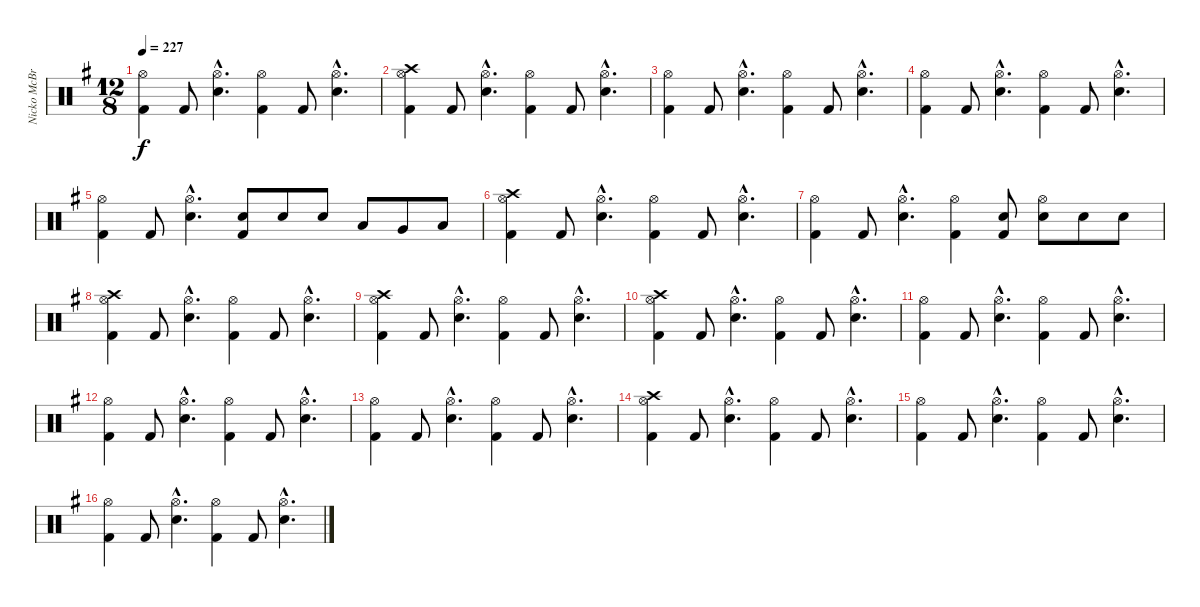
\track ("Nicko McBrain" "Nicko McBr") {instrument percussion}
\staff {score}
\articulation defaults
\ts (12 8)
\tempo 227
\clef neutral
\ks g
("Kick (hit) 2" "Hi-Hat (open)").4{dy f} "Kick (hit) 2".8 ("Snare (hit) 2"{hac} "Hi-Hat (open)"{hac}).4{d} ("Kick (hit) 2" "Hi-Hat (open)").4 "Kick (hit) 2".8 ("Snare (hit) 2"{hac} "Hi-Hat (open)"{hac}).4{d} |
("Kick (hit) 2" "Hi-Hat (open)" "Crash high (hit)").4 "Kick (hit) 2".8 ("Snare (hit) 2"{hac} "Hi-Hat (open)"{hac}).4{d} ("Kick (hit) 2" "Hi-Hat (open)").4 "Kick (hit) 2".8 ("Snare (hit) 2"{hac} "Hi-Hat (open)"{hac}).4{d} |
("Kick (hit) 2" "Hi-Hat (open)").4 "Kick (hit) 2".8 ("Snare (hit) 2"{hac} "Hi-Hat (open)"{hac}).4{d} ("Kick (hit) 2" "Hi-Hat (open)").4 "Kick (hit) 2".8 ("Snare (hit) 2"{hac} "Hi-Hat (open)"{hac}).4{d} |
("Kick (hit) 2" "Hi-Hat (open)").4 "Kick (hit) 2".8 ("Snare (hit) 2"{hac} "Hi-Hat (open)"{hac}).4{d} ("Kick (hit) 2" "Hi-Hat (open)").4 "Kick (hit) 2".8 ("Snare (hit) 2"{hac} "Hi-Hat (open)"{hac}).4{d} |
("Kick (hit) 2" "Hi-Hat (open)").4 "Kick (hit) 2".8 ("Snare (hit) 2"{hac} "Hi-Hat (open)"{hac}).4{d} ("Kick (hit) 2" "Snare (hit) 2").8 "Snare (hit) 2".8 "Snare (hit) 2".8 "Low Tom (hit)".8 "Very Low Tom (hit)".8 "Low Floor Tom (hit)".8 |
("Kick (hit) 2" "Hi-Hat (open)" "Crash high (hit)").4 "Kick (hit) 2".8 ("Snare (hit) 2"{hac} "Hi-Hat (open)"{hac}).4{d} ("Kick (hit) 2" "Hi-Hat (open)").4 "Kick (hit) 2".8 ("Snare (hit) 2"{hac} "Hi-Hat (open)"{hac}).4{d} |
("Kick (hit) 2" "Hi-Hat (open)").4 "Kick (hit) 2".8 ("Snare (hit) 2"{hac} "Hi-Hat (open)"{hac}).4{d} ("Kick (hit) 2" "Hi-Hat (open)").4 ("Kick (hit) 2" "Snare (hit) 2").8 ("Snare (hit) 2" "Hi-Hat (open)").8 "Snare (hit) 2".8 "Snare (hit) 2".8 |
("Kick (hit) 2" "Hi-Hat (open)" "Crash high (hit)").4 "Kick (hit) 2".8 ("Snare (hit) 2"{hac} "Hi-Hat (open)"{hac}).4{d} ("Kick (hit) 2" "Hi-Hat (open)").4 "Kick (hit) 2".8 ("Snare (hit) 2"{hac} "Hi-Hat (open)"{hac}).4{d} |
("Kick (hit) 2" "Hi-Hat (open)" "Crash high (hit)").4 "Kick (hit) 2".8 ("Snare (hit) 2"{hac} "Hi-Hat (open)"{hac}).4{d} ("Kick (hit) 2" "Hi-Hat (open)").4 "Kick (hit) 2".8 ("Snare (hit) 2"{hac} "Hi-Hat (open)"{hac}).4{d} |
("Kick (hit) 2" "Hi-Hat (open)" "Crash high (hit)").4 "Kick (hit) 2".8 ("Snare (hit) 2"{hac} "Hi-Hat (open)"{hac}).4{d} ("Kick (hit) 2" "Hi-Hat (open)").4 "Kick (hit) 2".8 ("Snare (hit) 2"{hac} "Hi-Hat (open)"{hac}).4{d} |
("Kick (hit) 2" "Hi-Hat (open)").4 "Kick (hit) 2".8 ("Snare (hit) 2"{hac} "Hi-Hat (open)"{hac}).4{d} ("Kick (hit) 2" "Hi-Hat (open)").4 "Kick (hit) 2".8 ("Snare (hit) 2"{hac} "Hi-Hat (open)"{hac}).4{d} |
("Kick (hit) 2" "Hi-Hat (open)").4 "Kick (hit) 2".8 ("Snare (hit) 2"{hac} "Hi-Hat (open)"{hac}).4{d} ("Kick (hit) 2" "Hi-Hat (open)").4 "Kick (hit) 2".8 ("Snare (hit) 2"{hac} "Hi-Hat (open)"{hac}).4{d} |
("Kick (hit) 2" "Hi-Hat (open)").4 "Kick (hit) 2".8 ("Snare (hit) 2"{hac} "Hi-Hat (open)"{hac}).4{d} ("Kick (hit) 2" "Hi-Hat (open)").4 "Kick (hit) 2".8 ("Snare (hit) 2"{hac} "Hi-Hat (open)"{hac}).4{d} |
("Kick (hit) 2" "Hi-Hat (open)" "Crash high (hit)").4 "Kick (hit) 2".8 ("Snare (hit) 2"{hac} "Hi-Hat (open)"{hac}).4{d} ("Kick (hit) 2" "Hi-Hat (open)").4 "Kick (hit) 2".8 ("Snare (hit) 2"{hac} "Hi-Hat (open)"{hac}).4{d} |
("Kick (hit) 2" "Hi-Hat (open)").4 "Kick (hit) 2".8 ("Snare (hit) 2"{hac} "Hi-Hat (open)"{hac}).4{d} ("Kick (hit) 2" "Hi-Hat (open)").4 "Kick (hit) 2".8 ("Snare (hit) 2"{hac} "Hi-Hat (open)"{hac}).4{d} |
("Kick (hit) 2" "Hi-Hat (open)").4 "Kick (hit) 2".8 ("Snare (hit) 2"{hac} "Hi-Hat (open)"{hac}).4{d} ("Kick (hit) 2" "Hi-Hat (open)").4 "Kick (hit) 2".8 ("Snare (hit) 2"{hac} "Hi-Hat (open)"{hac}).4{d}
